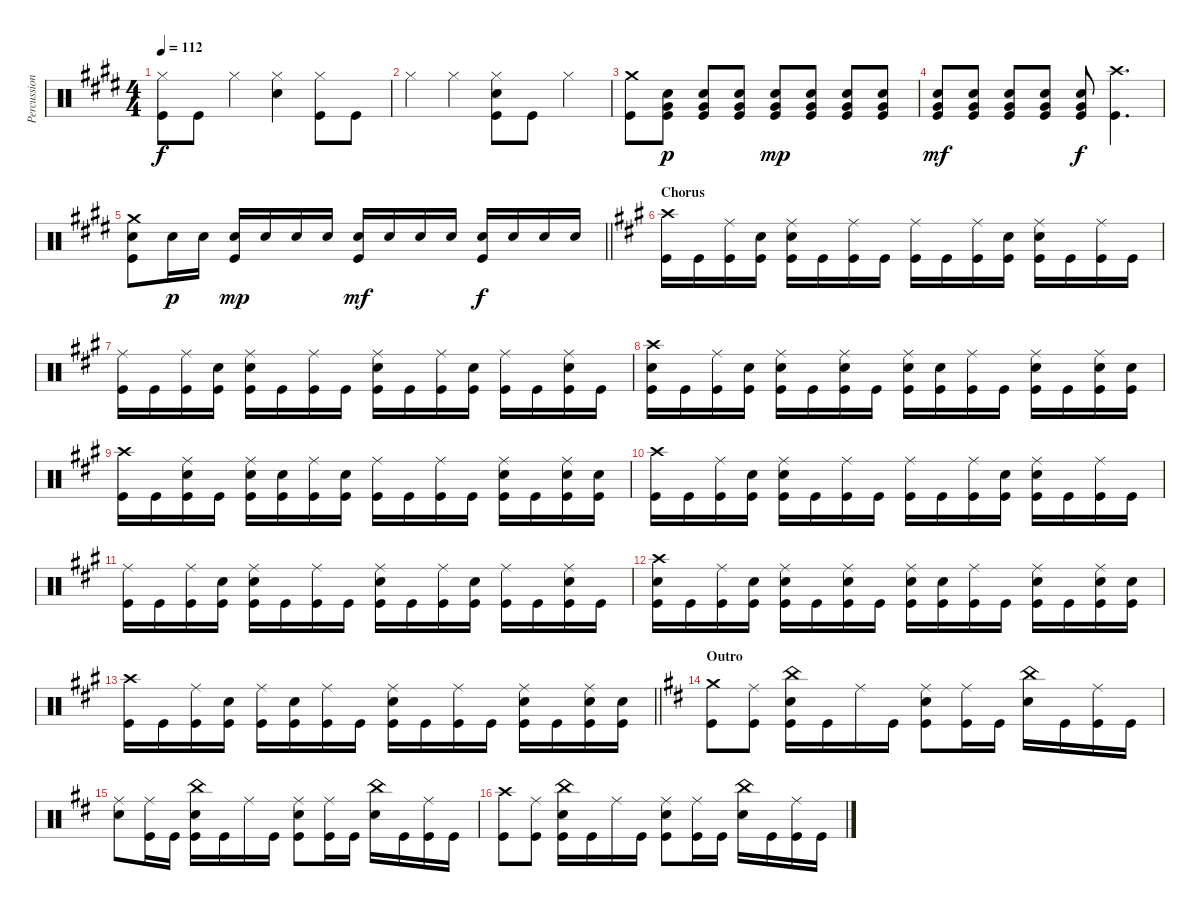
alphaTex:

\track ("Percussion" "Percussion") {instrument percussion}
\staff {score}
\articulation defaults
\ts (4 4)
\tempo 112
\clef neutral
\ks e
("Hi-Hat (closed)" "Kick (hit)").8{dy f} "Kick (hit)".8 "Hi-Hat (closed)".4 ("Hi-Hat (closed)" "Electric Snare (hit)").4 ("Hi-Hat (closed)" "Kick (hit)").8 "Kick (hit)".8 |
"Hi-Hat (closed)".4 "Hi-Hat (closed)".4 ("Hi-Hat (closed)" "Electric Snare (hit)" "Kick (hit)").8 "Kick (hit)".8 "Hi-Hat (closed)".4 |
("Crash medium (hit)" "Kick (hit)").8 ("Very Low Tom (hit)" "Electric Snare (hit)" "Kick (hit)").8{dy p} ("Very Low Tom (hit)" "Electric Snare (hit)" "Kick (hit)").8 ("Very Low Tom (hit)" "Electric Snare (hit)" "Kick (hit)").8 ("Very Low Tom (hit)" "Electric Snare (hit)" "Kick (hit)").8{dy mp} ("Very Low Tom (hit)" "Electric Snare (hit)" "Kick (hit)").8 ("Very Low Tom (hit)" "Electric Snare (hit)" "Kick (hit)").8 ("Very Low Tom (hit)" "Electric Snare (hit)" "Kick (hit)").8 |
("Very Low Tom (hit)" "Electric Snare (hit)" "Kick (hit)").8{dy mf} ("Very Low Tom (hit)" "Electric Snare (hit)" "Kick (hit)").8 ("Very Low Tom (hit)" "Electric Snare (hit)" "Kick (hit)").8 ("Very Low Tom (hit)" "Electric Snare (hit)" "Kick (hit)").8 ("Very Low Tom (hit)" "Electric Snare (hit)" "Kick (hit)").8{dy f} ("Crash high (hit)" "Kick (hit)").4{d} |
\barLineRight lightlight
("Crash medium (hit)" "Electric Snare (hit)" "Kick (hit)").8 "Electric Snare (hit)".16{dy p} "Electric Snare (hit)".16 ("Electric Snare (hit)" "Kick (hit)").16{dy mp} "Electric Snare (hit)".16 "Electric Snare (hit)".16 "Electric Snare (hit)".16 ("Electric Snare (hit)" "Kick (hit)").16{dy mf} "Electric Snare (hit)".16 "Electric Snare (hit)".16 "Electric Snare (hit)".16 ("Electric Snare (hit)" "Kick (hit)").16{dy f} "Electric Snare (hit)".16 "Electric Snare (hit)".16 "Electric Snare (hit)".16 |
\section ("" "Chorus")
\ks a
("Crash high (hit)" "Kick (hit)").16 "Kick (hit)".16 ("Ride (middle)" "Kick (hit)").16 ("Electric Snare (hit)" "Kick (hit)").16 ("Ride (middle)" "Electric Snare (hit)" "Kick (hit)").16 "Kick (hit)".16 ("Ride (middle)" "Kick (hit)").16 "Kick (hit)".16 ("Ride (middle)" "Kick (hit)").16 "Kick (hit)".16 ("Ride (middle)" "Kick (hit)").16 ("Electric Snare (hit)" "Kick (hit)").16 ("Ride (middle)" "Electric Snare (hit)" "Kick (hit)").16 "Kick (hit)".16 ("Ride (middle)" "Kick (hit)").16 "Kick (hit)".16 |
("Ride (middle)" "Kick (hit)").16 "Kick (hit)".16 ("Ride (middle)" "Kick (hit)").16 ("Electric Snare (hit)" "Kick (hit)").16 ("Ride (middle)" "Electric Snare (hit)" "Kick (hit)").16 "Kick (hit)".16 ("Ride (middle)" "Kick (hit)").16 "Kick (hit)".16 ("Ride (middle)" "Electric Snare (hit)" "Kick (hit)").16 "Kick (hit)".16 ("Ride (middle)" "Kick (hit)").16 ("Electric Snare (hit)" "Kick (hit)").16 ("Ride (middle)" "Kick (hit)").16 "Kick (hit)".16 ("Ride (middle)" "Electric Snare (hit)" "Kick (hit)").16 "Kick (hit)".16 |
("Crash high (hit)" "Electric Snare (hit)" "Kick (hit)").16 "Kick (hit)".16 ("Ride (middle)" "Kick (hit)").16 ("Electric Snare (hit)" "Kick (hit)").16 ("Ride (middle)" "Electric Snare (hit)" "Kick (hit)").16 "Kick (hit)".16 ("Ride (middle)" "Electric Snare (hit)" "Kick (hit)").16 "Kick (hit)".16 ("Ride (middle)" "Electric Snare (hit)" "Kick (hit)").16 ("Electric Snare (hit)" "Kick (hit)").16 ("Ride (middle)" "Kick (hit)").16 "Kick (hit)".16 ("Ride (middle)" "Electric Snare (hit)" "Kick (hit)").16 "Kick (hit)".16 ("Ride (middle)" "Electric Snare (hit)" "Kick (hit)").16 ("Electric Snare (hit)" "Kick (hit)").16 |
("Crash high (hit)" "Kick (hit)").16 "Kick (hit)".16 ("Ride (middle)" "Electric Snare (hit)" "Kick (hit)").16 "Kick (hit)".16 ("Ride (middle)" "Electric Snare (hit)" "Kick (hit)").16 ("Electric Snare (hit)" "Kick (hit)").16 ("Ride (middle)" "Kick (hit)").16 ("Electric Snare (hit)" "Kick (hit)").16 ("Ride (middle)" "Kick (hit)").16 "Kick (hit)".16 ("Ride (middle)" "Kick (hit)").16 "Kick (hit)".16 ("Ride (middle)" "Electric Snare (hit)" "Kick (hit)").16 "Kick (hit)".16 ("Ride (middle)" "Electric Snare (hit)" "Kick (hit)").16 ("Electric Snare (hit)" "Kick (hit)").16 |
("Crash high (hit)" "Kick (hit)").16 "Kick (hit)".16 ("Ride (middle)" "Kick (hit)").16 ("Electric Snare (hit)" "Kick (hit)").16 ("Ride (middle)" "Electric Snare (hit)" "Kick (hit)").16 "Kick (hit)".16 ("Ride (middle)" "Kick (hit)").16 "Kick (hit)".16 ("Ride (middle)" "Kick (hit)").16 "Kick (hit)".16 ("Ride (middle)" "Kick (hit)").16 ("Electric Snare (hit)" "Kick (hit)").16 ("Ride (middle)" "Electric Snare (hit)" "Kick (hit)").16 "Kick (hit)".16 ("Ride (middle)" "Kick (hit)").16 "Kick (hit)".16 |
("Ride (middle)" "Kick (hit)").16 "Kick (hit)".16 ("Ride (middle)" "Kick (hit)").16 ("Electric Snare (hit)" "Kick (hit)").16 ("Ride (middle)" "Electric Snare (hit)" "Kick (hit)").16 "Kick (hit)".16 ("Ride (middle)" "Kick (hit)").16 "Kick (hit)".16 ("Ride (middle)" "Electric Snare (hit)" "Kick (hit)").16 "Kick (hit)".16 ("Ride (middle)" "Kick (hit)").16 ("Electric Snare (hit)" "Kick (hit)").16 ("Ride (middle)" "Kick (hit)").16 "Kick (hit)".16 ("Ride (middle)" "Electric Snare (hit)" "Kick (hit)").16 "Kick (hit)".16 |
("Crash high (hit)" "Electric Snare (hit)" "Kick (hit)").16 "Kick (hit)".16 ("Ride (middle)" "Kick (hit)").16 ("Electric Snare (hit)" "Kick (hit)").16 ("Ride (middle)" "Electric Snare (hit)" "Kick (hit)").16 "Kick (hit)".16 ("Ride (middle)" "Electric Snare (hit)" "Kick (hit)").16 "Kick (hit)".16 ("Ride (middle)" "Electric Snare (hit)" "Kick (hit)").16 ("Electric Snare (hit)" "Kick (hit)").16 ("Ride (middle)" "Kick (hit)").16 "Kick (hit)".16 ("Ride (middle)" "Electric Snare (hit)" "Kick (hit)").16 "Kick (hit)".16 ("Ride (middle)" "Electric Snare (hit)" "Kick (hit)").16 ("Electric Snare (hit)" "Kick (hit)").16 |
\barLineRight lightlight
("Crash high (hit)" "Kick (hit)").16 "Kick (hit)".16 ("Ride (middle)" "Kick (hit)").16 ("Electric Snare (hit)" "Kick (hit)").16 ("Ride (middle)" "Kick (hit)").16 ("Electric Snare (hit)" "Kick (hit)").16 ("Ride (middle)" "Kick (hit)").16 "Kick (hit)".16 ("Ride (middle)" "Electric Snare (hit)" "Kick (hit)").16 "Kick (hit)".16 ("Ride (middle)" "Kick (hit)").16 "Kick (hit)".16 ("Ride (middle)" "Electric Snare (hit)" "Kick (hit)").16 "Kick (hit)".16 ("Ride (middle)" "Electric Snare (hit)" "Kick (hit)").16 ("Electric Snare (hit)" "Kick (hit)").16 |
\section ("" "Outro")
\ks d
("Crash medium (hit)" "Kick (hit)").8 ("Ride (middle)" "Kick (hit)").8 ("China (hit)" "Electric Snare (hit)" "Kick (hit)").16 "Kick (hit)".16 "Ride (middle)".16 "Kick (hit)".16 ("Ride (middle)" "Electric Snare (hit)" "Kick (hit)").8 ("Ride (middle)" "Kick (hit)").16 "Kick (hit)".16 ("China (hit)" "Electric Snare (hit)").16 "Kick (hit)".16 ("Ride (middle)" "Kick (hit)").16 "Kick (hit)".16 |
("Ride (middle)" "Electric Snare (hit)").8 ("Ride (middle)" "Kick (hit)").16 "Kick (hit)".16 ("China (hit)" "Electric Snare (hit)" "Kick (hit)").16 "Kick (hit)".16 "Ride (middle)".16 "Kick (hit)".16 ("Ride (middle)" "Electric Snare (hit)" "Kick (hit)").8 ("Ride (middle)" "Kick (hit)").16 "Kick (hit)".16 ("China (hit)" "Electric Snare (hit)").16 "Kick (hit)".16 ("Ride (middle)" "Kick (hit)").16 "Kick (hit)".16 |
("Crash high (hit)" "Kick (hit)").8 ("Ride (middle)" "Kick (hit)").8 ("China (hit)" "Electric Snare (hit)" "Kick (hit)").16 "Kick (hit)".16 "Ride (middle)".16 "Kick (hit)".16 ("Ride (middle)" "Electric Snare (hit)" "Kick (hit)").8 ("Ride (middle)" "Kick (hit)").16 "Kick (hit)".16 ("China (hit)" "Electric Snare (hit)").16 "Kick (hit)".16 ("Ride (middle)" "Kick (hit)").16 "Kick (hit)".16
